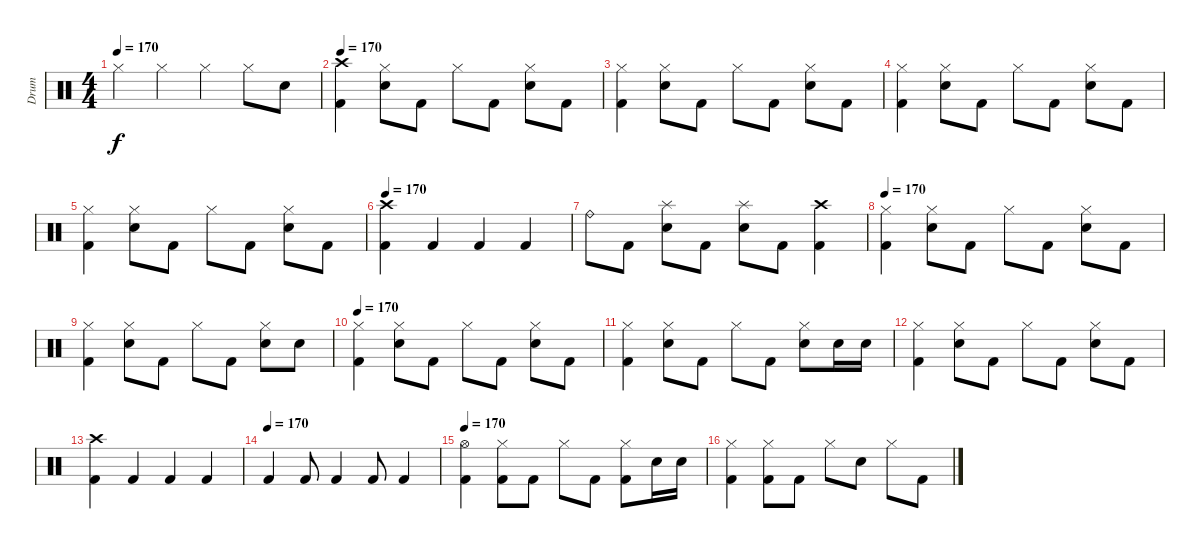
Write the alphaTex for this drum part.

\track ("Drum" "Drum") {instrument percussion}
\staff {score}
\articulation defaults
\ts (4 4)
\tempo 170
\clef neutral
\ks c "Hi-Hat (closed)".4{dy f} "Hi-Hat (closed)".4 "Hi-Hat (closed)".4 "Hi-Hat (closed)".8 "Electric Snare (hit)".8
|
\tempo 170
("Crash high (hit)" "Kick (hit) 2").4 ("Hi-Hat (closed)" "Electric Snare (hit)").8 "Kick (hit) 2".8 "Hi-Hat (closed)".8 "Kick (hit) 2".8 ("Hi-Hat (closed)" "Electric Snare (hit)").8 "Kick (hit) 2".8 |
("Hi-Hat (closed)" "Kick (hit) 2").4 ("Hi-Hat (closed)" "Electric Snare (hit)").8 "Kick (hit) 2".8 "Hi-Hat (closed)".8 "Kick (hit) 2".8 ("Hi-Hat (closed)" "Electric Snare (hit)").8 "Kick (hit) 2".8 |
("Hi-Hat (closed)" "Kick (hit) 2").4 ("Hi-Hat (closed)" "Electric Snare (hit)").8 "Kick (hit) 2".8 "Hi-Hat (closed)".8 "Kick (hit) 2".8 ("Hi-Hat (closed)" "Electric Snare (hit)").8 "Kick (hit) 2".8 |
("Hi-Hat (closed)" "Kick (hit) 2").4 ("Hi-Hat (closed)" "Electric Snare (hit)").8 "Kick (hit) 2".8 "Hi-Hat (closed)".8 "Kick (hit) 2".8 ("Hi-Hat (closed)" "Electric Snare (hit)").8 "Kick (hit) 2".8 |
\tempo 170
("Crash high (hit)" "Kick (hit) 2").4 "Kick (hit) 2".4 "Kick (hit) 2".4 "Kick (hit) 2".4 |
"Ride (bell)".8 "Kick (hit) 2".8 ("Splash (hit)" "Electric Snare (hit)").8 "Kick (hit) 2".8 ("Splash (hit)" "Electric Snare (hit)").8 "Kick (hit) 2".8 ("Crash high (hit)" "Kick (hit) 2").4 |
\tempo 170
("Hi-Hat (closed)" "Kick (hit) 2").4 ("Hi-Hat (closed)" "Electric Snare (hit)").8 "Kick (hit) 2".8 "Hi-Hat (closed)".8 "Kick (hit) 2".8 ("Hi-Hat (closed)" "Electric Snare (hit)").8 "Kick (hit) 2".8 |
("Hi-Hat (closed)" "Kick (hit) 2").4 ("Hi-Hat (closed)" "Electric Snare (hit)").8 "Kick (hit) 2".8 "Hi-Hat (closed)".8 "Kick (hit) 2".8 ("Hi-Hat (closed)" "Electric Snare (hit)").8 "Electric Snare (hit)".8 |
\tempo 170
("Hi-Hat (closed)" "Kick (hit) 2").4 ("Hi-Hat (closed)" "Electric Snare (hit)").8 "Kick (hit) 2".8 "Hi-Hat (closed)".8 "Kick (hit) 2".8 ("Hi-Hat (closed)" "Electric Snare (hit)").8 "Kick (hit) 2".8 |
("Hi-Hat (closed)" "Kick (hit) 2").4 ("Hi-Hat (closed)" "Electric Snare (hit)").8 "Kick (hit) 2".8 "Hi-Hat (closed)".8 "Kick (hit) 2".8 ("Hi-Hat (closed)" "Electric Snare (hit)").8 "Electric Snare (hit)".16 "Electric Snare (hit)".16 |
("Hi-Hat (closed)" "Kick (hit) 2").4 ("Hi-Hat (closed)" "Electric Snare (hit)").8 "Kick (hit) 2".8 "Hi-Hat (closed)".8 "Kick (hit) 2".8 ("Hi-Hat (closed)" "Electric Snare (hit)").8 "Kick (hit) 2".8 |
("Crash high (hit)" "Kick (hit) 2").4 "Kick (hit) 2".4 "Kick (hit) 2".4 "Kick (hit) 2".4 |
\tempo (170)
"Kick (hit) 2".4 "Kick (hit) 2".8 "Kick (hit) 2".4 "Kick (hit) 2".8 "Kick (hit) 2".4 |
\tempo 170
("Hi-Hat (open)" "Kick (hit) 2").4 ("Hi-Hat (closed)" "Kick (hit) 2").8 "Kick (hit) 2".8 "Hi-Hat (closed)".8 "Kick (hit) 2".8 ("Hi-Hat (closed)" "Kick (hit) 2").8 "Electric Snare (hit)".16 "Electric Snare (hit)".16 |
("Hi-Hat (closed)" "Kick (hit) 2").4 ("Hi-Hat (closed)" "Kick (hit) 2").8 "Kick (hit) 2".8 "Hi-Hat (closed)".8 "Electric Snare (hit)".8 "Hi-Hat (closed)".8 "Kick (hit) 2".8
